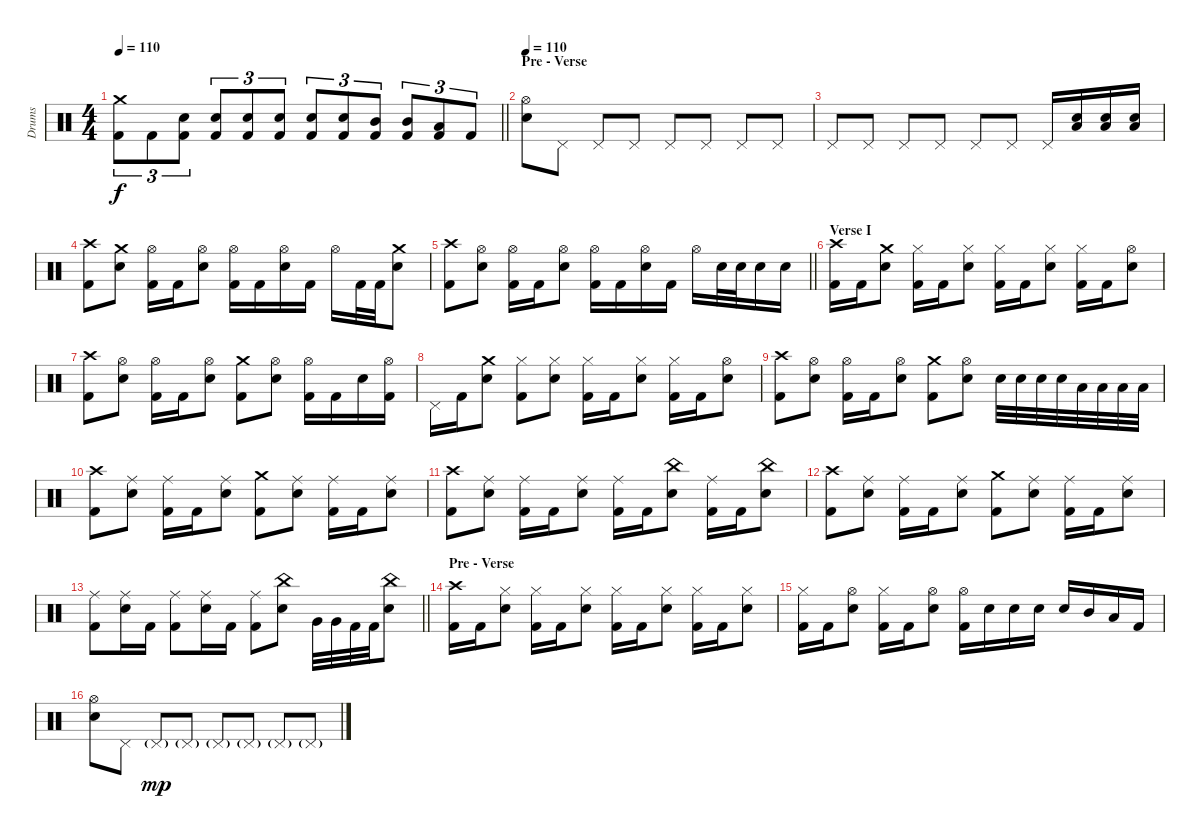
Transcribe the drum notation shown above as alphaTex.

\track ("Drums" "Drums") {instrument percussion}
\staff {score}
\articulation defaults
\ts (4 4)
\tempo 110
\clef neutral
\barLineRight lightlight
\ks c
("Crash medium (hit)" "Kick (hit) 2").8{tu (3 2) dy f} "Kick (hit) 2".8{tu (3 2)} ("Electric Snare (hit)" "Kick (hit) 2").8{tu (3 2)} ("Electric Snare (hit)" "Kick (hit) 2").8{tu (3 2)} ("Electric Snare (hit)" "Kick (hit) 2").8{tu (3 2)} ("Electric Snare (hit)" "Kick (hit) 2").8{tu (3 2)} ("Electric Snare (hit)" "Kick (hit) 2").8{tu (3 2)} ("Electric Snare (hit)" "Kick (hit) 2").8{tu (3 2)} ("Mid Tom (hit)" "Kick (hit) 2").8{tu (3 2)} ("Mid Tom (hit)" "Kick (hit) 2").8{tu (3 2)} ("Low Tom (hit)" "Kick (hit) 2").8{tu (3 2)} "Kick (hit) 2".8{tu (3 2)} |
\section ("" "Pre - Verse ")
\tempo 110
("Hi-Hat (open)" "Electric Snare (hit)").8 "Pedal Hi-Hat (hit)".8 "Pedal Hi-Hat (hit)".8 "Pedal Hi-Hat (hit)".8 "Pedal Hi-Hat (hit)".8 "Pedal Hi-Hat (hit)".8 "Pedal Hi-Hat (hit)".8 "Pedal Hi-Hat (hit)".8 |
"Pedal Hi-Hat (hit)".8 "Pedal Hi-Hat (hit)".8 "Pedal Hi-Hat (hit)".8 "Pedal Hi-Hat (hit)".8 "Pedal Hi-Hat (hit)".8 "Pedal Hi-Hat (hit)".8 "Pedal Hi-Hat (hit)".16 ("Electric Snare (hit)" "Low Floor Tom (hit)").16 ("Electric Snare (hit)" "Low Floor Tom (hit)").16 ("Electric Snare (hit)" "Low Floor Tom (hit)").16 |
("Crash high (hit)" "Kick (hit) 2").8 ("Crash medium (hit)" "Electric Snare (hit)").8 ("Hi-Hat (open)" "Kick (hit) 2").16 "Kick (hit) 2".16 ("Hi-Hat (open)" "Electric Snare (hit)").8 ("Hi-Hat (open)" "Kick (hit) 2").16 "Kick (hit) 2".16 ("Hi-Hat (open)" "Electric Snare (hit)").16 "Kick (hit) 2".16 "Hi-Hat (open)".16 "Kick (hit) 2".32 "Kick (hit) 2".32 ("Crash medium (hit)" "Electric Snare (hit)").8 |
\barLineRight lightlight
("Crash high (hit)" "Kick (hit) 2").8 ("Hi-Hat (open)" "Electric Snare (hit)").8 ("Hi-Hat (open)" "Kick (hit) 2").16 "Kick (hit) 2".16 ("Hi-Hat (open)" "Electric Snare (hit)").8 ("Hi-Hat (open)" "Kick (hit) 2").16 "Kick (hit) 2".16 ("Hi-Hat (open)" "Electric Snare (hit)").16 "Kick (hit) 2".16 "Hi-Hat (open)".16 "Electric Snare (hit)".32 "Electric Snare (hit)".32 "Electric Snare (hit)".16 "Electric Snare (hit)".16 |
\section ("" "Verse I")
("Crash high (hit)" "Kick (hit) 2").16 "Kick (hit) 2".16 ("Crash medium (hit)" "Electric Snare (hit)").8 ("Hi-Hat (closed)" "Kick (hit) 2").16 "Kick (hit) 2".16 ("Hi-Hat (closed)" "Electric Snare (hit)").8 ("Hi-Hat (closed)" "Kick (hit) 2").16 "Kick (hit) 2".16 ("Hi-Hat (closed)" "Electric Snare (hit)").8 ("Hi-Hat (closed)" "Kick (hit) 2").16 "Kick (hit) 2".16 ("Hi-Hat (open)" "Electric Snare (hit)").8 |
("Crash high (hit)" "Kick (hit) 2").8 ("Hi-Hat (open)" "Electric Snare (hit)").8 ("Hi-Hat (open)" "Kick (hit) 2").16 "Kick (hit) 2".16 ("Hi-Hat (open)" "Electric Snare (hit)").8 ("Crash medium (hit)" "Kick (hit) 2").8 ("Hi-Hat (open)" "Electric Snare (hit)").8 ("Hi-Hat (open)" "Kick (hit) 2").16 "Kick (hit) 2".16 "Electric Snare (hit)".16 ("Hi-Hat (open)" "Kick (hit) 2").16 |
"Pedal Hi-Hat (hit)".16 "Kick (hit) 2".16 ("Crash medium (hit)" "Electric Snare (hit)").8 ("Hi-Hat (closed)" "Kick (hit) 2").8 ("Hi-Hat (closed)" "Electric Snare (hit)").8 ("Hi-Hat (closed)" "Kick (hit) 2").16 "Kick (hit) 2".16 ("Hi-Hat (closed)" "Electric Snare (hit)").8 ("Hi-Hat (closed)" "Kick (hit) 2").16 "Kick (hit) 2".16 ("Hi-Hat (open)" "Electric Snare (hit)").8 |
("Crash high (hit)" "Kick (hit) 2").8 ("Hi-Hat (open)" "Electric Snare (hit)").8 ("Hi-Hat (open)" "Kick (hit) 2").16 "Kick (hit) 2".16 ("Hi-Hat (open)" "Electric Snare (hit)").8 ("Crash medium (hit)" "Kick (hit) 2").8 ("Hi-Hat (open)" "Electric Snare (hit)").8 "Electric Snare (hit)".32 "Electric Snare (hit)".32 "Electric Snare (hit)".32 "Electric Snare (hit)".32 "Low Tom (hit)".32 "Low Tom (hit)".32 "Low Tom (hit)".32 "Low Tom (hit)".32 |
("Crash high (hit)" "Kick (hit) 2").8 ("Ride (middle)" "Electric Snare (hit)").8 ("Ride (middle)" "Kick (hit) 2").16 "Kick (hit) 2".16 ("Ride (middle)" "Electric Snare (hit)").8 ("Crash medium (hit)" "Kick (hit) 2").8 ("Ride (middle)" "Electric Snare (hit)").8 ("Ride (middle)" "Kick (hit) 2").16 "Kick (hit) 2".16 ("Ride (middle)" "Electric Snare (hit)").8 |
("Crash high (hit)" "Kick (hit) 2").8 ("Ride (middle)" "Electric Snare (hit)").8 ("Ride (middle)" "Kick (hit) 2").16 "Kick (hit) 2".16 ("Ride (middle)" "Electric Snare (hit)").8 ("Ride (middle)" "Kick (hit) 2").16 "Kick (hit) 2".16 ("China (hit)" "Electric Snare (hit)").8 ("Ride (middle)" "Kick (hit) 2").16 "Kick (hit) 2".16 ("China (hit)" "Electric Snare (hit)").8 |
("Crash high (hit)" "Kick (hit) 2").8 ("Ride (middle)" "Electric Snare (hit)").8 ("Ride (middle)" "Kick (hit) 2").16 "Kick (hit) 2".16 ("Ride (middle)" "Electric Snare (hit)").8 ("Crash medium (hit)" "Kick (hit) 2").8 ("Ride (middle)" "Electric Snare (hit)").8 ("Ride (middle)" "Kick (hit) 2").16 "Kick (hit) 2".16 ("Ride (middle)" "Electric Snare (hit)").8 |
\barLineRight lightlight
("Ride (middle)" "Kick (hit) 2").8 ("Ride (middle)" "Electric Snare (hit)").16 "Kick (hit) 2".16 ("Ride (middle)" "Kick (hit) 2").8 ("Ride (middle)" "Electric Snare (hit)").16 "Kick (hit) 2".16 ("Ride (middle)" "Kick (hit) 2").8 ("China (hit)" "Electric Snare (hit)").8 "Very Low Tom (hit)".32 "Very Low Tom (hit)".32 "Kick (hit) 2".32 "Kick (hit) 2".32 ("China (hit)" "Electric Snare (hit)").8 |
\section ("" "Pre - Verse ")
("Crash high (hit)" "Kick (hit) 2").16 "Kick (hit) 2".16 ("Hi-Hat (closed)" "Electric Snare (hit)").8 ("Hi-Hat (closed)" "Kick (hit) 2").16 "Kick (hit) 2".16 ("Hi-Hat (closed)" "Electric Snare (hit)").8 ("Hi-Hat (closed)" "Kick (hit) 2").16 "Kick (hit) 2".16 ("Hi-Hat (closed)" "Electric Snare (hit)").8 ("Hi-Hat (closed)" "Kick (hit) 2").16 "Kick (hit) 2".16 ("Hi-Hat (closed)" "Electric Snare (hit)").8 |
("Hi-Hat (closed)" "Kick (hit) 2").16 "Kick (hit) 2".16 ("Hi-Hat (open)" "Electric Snare (hit)").8 ("Hi-Hat (closed)" "Kick (hit) 2").16 "Kick (hit) 2".16 ("Hi-Hat (open)" "Electric Snare (hit)").8 ("Hi-Hat (open)" "Kick (hit) 2").16 "Electric Snare (hit)".16 "Electric Snare (hit)".16 "Electric Snare (hit)".16 "Electric Snare (hit)".16 "Mid Tom (hit)".16 "Low Tom (hit)".16 "Kick (hit) 2".16 |
("Hi-Hat (open)" "Electric Snare (hit)").8 "Pedal Hi-Hat (hit)".8 "Pedal Hi-Hat (hit)"{g}.8{dy mp} "Pedal Hi-Hat (hit)"{g}.8 "Pedal Hi-Hat (hit)"{g}.8 "Pedal Hi-Hat (hit)"{g}.8 "Pedal Hi-Hat (hit)"{g}.8 "Pedal Hi-Hat (hit)"{g}.8
